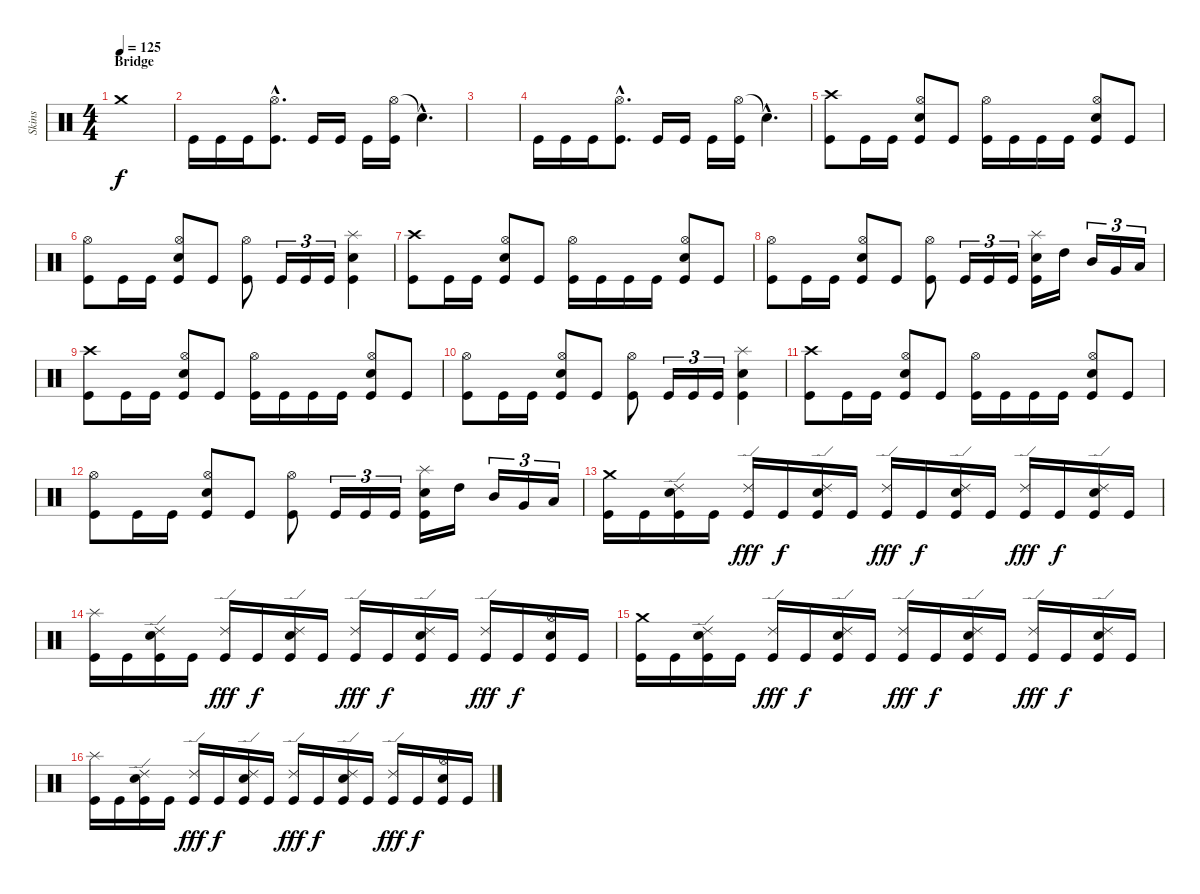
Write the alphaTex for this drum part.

\track ("Skins" "Skins") {instrument percussion}
\staff {score}
\articulation defaults
\ts (4 4)
\section ("" "Bridge")
\tempo 125
\clef neutral
\ks c "Crash medium (hit)".1{dy f}
|
"Kick (hit)".16 "Kick (hit)".16 "Kick (hit)".16 ("Hi-Hat (open)"{hac} "Kick (hit)"{hac}).8{d} "Kick (hit)".16 "Kick (hit)".16 "Kick (hit)".16 ("Hi-Hat (open)" "Kick (hit)").16 "Snare (hit)"{hac t}.4{d} |
|
"Kick (hit)".16 "Kick (hit)".16 "Kick (hit)".16 ("Hi-Hat (open)"{hac} "Kick (hit)"{hac}).8{d} "Kick (hit)".16 "Kick (hit)".16 "Kick (hit)".16 ("Hi-Hat (open)" "Kick (hit)").16 "Snare (hit)"{hac t}.4{d} |
("Crash high (hit)" "Kick (hit)").8 "Kick (hit)".16 "Kick (hit)".16 ("Hi-Hat (open)" "Electric Snare (hit)" "Kick (hit)").8 "Kick (hit)".8 ("Hi-Hat (open)" "Kick (hit)").16 "Kick (hit)".16 "Kick (hit)".16 "Kick (hit)".16 ("Hi-Hat (open)" "Electric Snare (hit)" "Kick (hit)").8 "Kick (hit)".8 |
("Hi-Hat (open)" "Kick (hit)").8 "Kick (hit)".16 "Kick (hit)".16 ("Hi-Hat (open)" "Electric Snare (hit)" "Kick (hit)").8 "Kick (hit)".8 ("Hi-Hat (open)" "Kick (hit)").8 "Kick (hit)".16{tu (3 2)} "Kick (hit)".16{tu (3 2)} "Kick (hit)".16{tu (3 2)} ("Splash (hit)" "Electric Snare (hit)" "Kick (hit)").4 |
("Crash high (hit)" "Kick (hit)").8 "Kick (hit)".16 "Kick (hit)".16 ("Hi-Hat (open)" "Electric Snare (hit)" "Kick (hit)").8 "Kick (hit)".8 ("Hi-Hat (open)" "Kick (hit)").16 "Kick (hit)".16 "Kick (hit)".16 "Kick (hit)".16 ("Hi-Hat (open)" "Electric Snare (hit)" "Kick (hit)").8 "Kick (hit)".8 |
("Hi-Hat (open)" "Kick (hit)").8 "Kick (hit)".16 "Kick (hit)".16 ("Hi-Hat (open)" "Electric Snare (hit)" "Kick (hit)").8 "Kick (hit)".8 ("Hi-Hat (open)" "Kick (hit)").8 "Kick (hit)".16{tu (3 2)} "Kick (hit)".16{tu (3 2)} "Kick (hit)".16{tu (3 2)} ("Splash (hit)" "Electric Snare (hit)" "Kick (hit)").16 "High Tom (hit)".16 "Mid Tom (hit)".16{tu (3 2)} "Very Low Tom (hit)".16{tu (3 2)} "Low Floor Tom (hit)".16{tu (3 2)} |
("Crash high (hit)" "Kick (hit)").8 "Kick (hit)".16 "Kick (hit)".16 ("Hi-Hat (open)" "Electric Snare (hit)" "Kick (hit)").8 "Kick (hit)".8 ("Hi-Hat (open)" "Kick (hit)").16 "Kick (hit)".16 "Kick (hit)".16 "Kick (hit)".16 ("Hi-Hat (open)" "Electric Snare (hit)" "Kick (hit)").8 "Kick (hit)".8 |
("Hi-Hat (open)" "Kick (hit)").8 "Kick (hit)".16 "Kick (hit)".16 ("Hi-Hat (open)" "Electric Snare (hit)" "Kick (hit)").8 "Kick (hit)".8 ("Hi-Hat (open)" "Kick (hit)").8 "Kick (hit)".16{tu (3 2)} "Kick (hit)".16{tu (3 2)} "Kick (hit)".16{tu (3 2)} ("Splash (hit)" "Electric Snare (hit)" "Kick (hit)").4 |
("Crash high (hit)" "Kick (hit)").8 "Kick (hit)".16 "Kick (hit)".16 ("Hi-Hat (open)" "Electric Snare (hit)" "Kick (hit)").8 "Kick (hit)".8 ("Hi-Hat (open)" "Kick (hit)").16 "Kick (hit)".16 "Kick (hit)".16 "Kick (hit)".16 ("Hi-Hat (open)" "Electric Snare (hit)" "Kick (hit)").8 "Kick (hit)".8 |
("Hi-Hat (open)" "Kick (hit)").8 "Kick (hit)".16 "Kick (hit)".16 ("Hi-Hat (open)" "Electric Snare (hit)" "Kick (hit)").8 "Kick (hit)".8 ("Hi-Hat (open)" "Kick (hit)").8 "Kick (hit)".16{tu (3 2)} "Kick (hit)".16{tu (3 2)} "Kick (hit)".16{tu (3 2)} ("Splash (hit)" "Electric Snare (hit)" "Kick (hit)").16 "High Tom (hit)".16 "Mid Tom (hit)".16{tu (3 2)} "Very Low Tom (hit)".16{tu (3 2)} "Low Floor Tom (hit)".16{tu (3 2)} |
("Crash medium (hit)" "Kick (hit)").16 "Kick (hit)".16 ("Ride (edge) 2" "Electric Snare (hit)" "Kick (hit)").16 "Kick (hit)".16 ("Ride (edge) 2" "Kick (hit)").16{dy fff} "Kick (hit)".16{dy f} ("Ride (edge) 2" "Electric Snare (hit)" "Kick (hit)").16 "Kick (hit)".16 ("Ride (edge) 2" "Kick (hit)").16{dy fff} "Kick (hit)".16{dy f} ("Ride (edge) 2" "Electric Snare (hit)" "Kick (hit)").16 "Kick (hit)".16 ("Ride (edge) 2" "Kick (hit)").16{dy fff} "Kick (hit)".16{dy f} ("Ride (edge) 2" "Electric Snare (hit)" "Kick (hit)").16 "Kick (hit)".16 |
("Splash (hit)" "Kick (hit)").16 "Kick (hit)".16 ("Ride (edge) 2" "Electric Snare (hit)" "Kick (hit)").16 "Kick (hit)".16 ("Ride (edge) 2" "Kick (hit)").16{dy fff} "Kick (hit)".16{dy f} ("Ride (edge) 2" "Electric Snare (hit)" "Kick (hit)").16 "Kick (hit)".16 ("Ride (edge) 2" "Kick (hit)").16{dy fff} "Kick (hit)".16{dy f} ("Ride (edge) 2" "Electric Snare (hit)" "Kick (hit)").16 "Kick (hit)".16 ("Ride (edge) 2" "Kick (hit)").16{dy fff} "Kick (hit)".16{dy f} ("Hi-Hat (open)" "Electric Snare (hit)" "Kick (hit)").16 "Kick (hit)".16 |
("Crash medium (hit)" "Kick (hit)").16 "Kick (hit)".16 ("Ride (edge) 2" "Electric Snare (hit)" "Kick (hit)").16 "Kick (hit)".16 ("Ride (edge) 2" "Kick (hit)").16{dy fff} "Kick (hit)".16{dy f} ("Ride (edge) 2" "Electric Snare (hit)" "Kick (hit)").16 "Kick (hit)".16 ("Ride (edge) 2" "Kick (hit)").16{dy fff} "Kick (hit)".16{dy f} ("Ride (edge) 2" "Electric Snare (hit)" "Kick (hit)").16 "Kick (hit)".16 ("Ride (edge) 2" "Kick (hit)").16{dy fff} "Kick (hit)".16{dy f} ("Ride (edge) 2" "Electric Snare (hit)" "Kick (hit)").16 "Kick (hit)".16 |
("Splash (hit)" "Kick (hit)").16 "Kick (hit)".16 ("Ride (edge) 2" "Electric Snare (hit)" "Kick (hit)").16 "Kick (hit)".16 ("Ride (edge) 2" "Kick (hit)").16{dy fff} "Kick (hit)".16{dy f} ("Ride (edge) 2" "Electric Snare (hit)" "Kick (hit)").16 "Kick (hit)".16 ("Ride (edge) 2" "Kick (hit)").16{dy fff} "Kick (hit)".16{dy f} ("Ride (edge) 2" "Electric Snare (hit)" "Kick (hit)").16 "Kick (hit)".16 ("Ride (edge) 2" "Kick (hit)").16{dy fff} "Kick (hit)".16{dy f} ("Hi-Hat (open)" "Electric Snare (hit)" "Kick (hit)").16 "Kick (hit)".16
